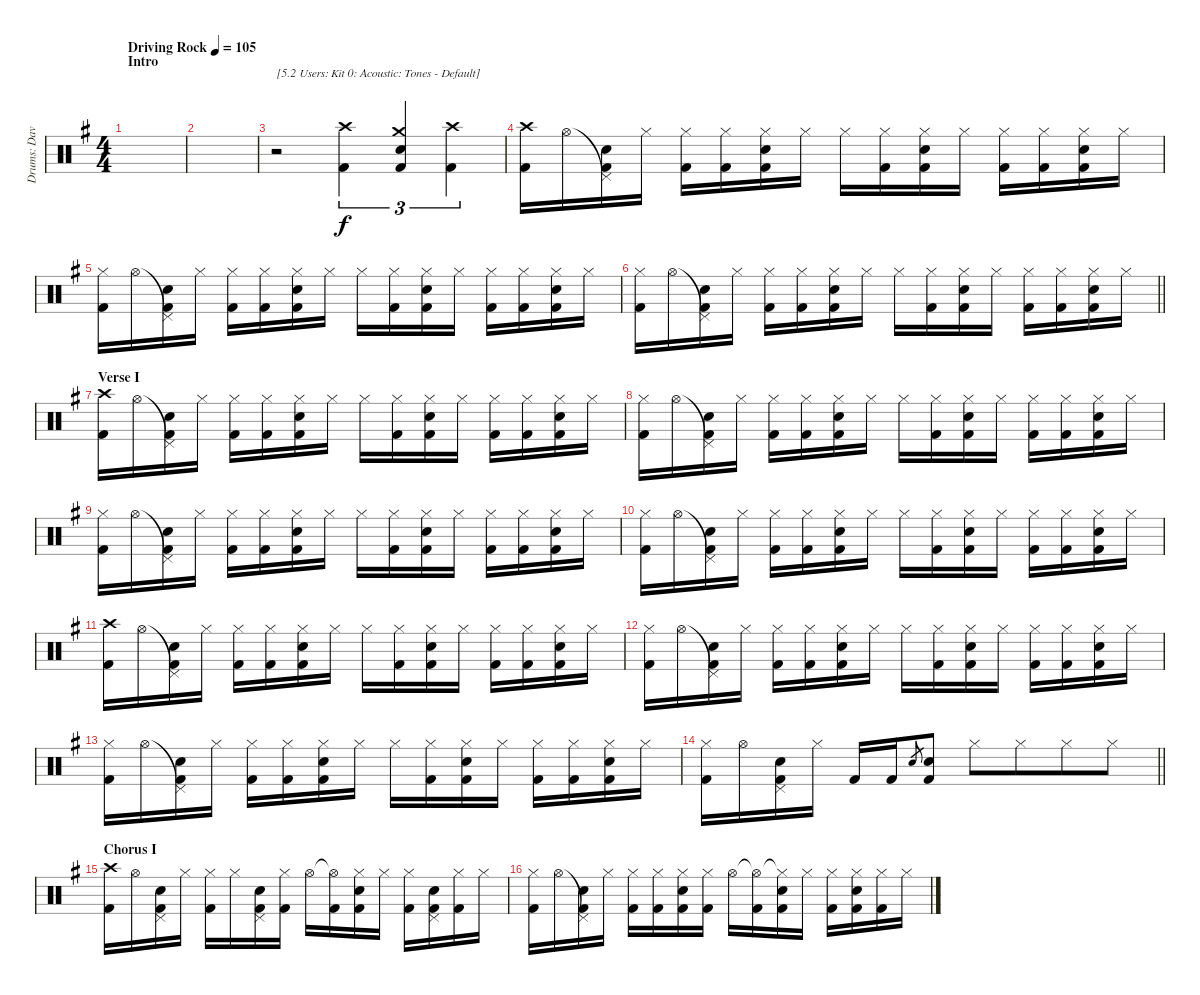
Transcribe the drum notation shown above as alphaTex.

\track ("Drums: Dave" "Drums: Dav") {instrument percussion}
\staff {score}
\articulation defaults
\ts (4 4)
\section ("" "Intro")
\tempo (105 "Driving Rock")
\clef neutral
\ks g
|
|
r.2{txt "[5.2 Users: Kit 0: Acoustic: Tones - Default]"} ("Crash high (hit)" "Kick (hit) 2").4{tu (3 2)} ("Crash medium (hit)" "Electric Snare (hit)" "Kick (hit) 2").4{tu (3 2)} ("Crash high (hit)" "Kick (hit) 2").4{tu (3 2)} |
("Crash high (hit)" "Kick (hit) 2").16 "Hi-Hat (open)".16 ("Pedal Hi-Hat (hit)"{t} "Electric Snare (hit)" "Kick (hit) 2").16 "Hi-Hat (closed)".16 ("Hi-Hat (closed)" "Kick (hit) 2").16 ("Hi-Hat (closed)" "Kick (hit) 2").16 ("Hi-Hat (closed)" "Electric Snare (hit)" "Kick (hit) 2").16 "Hi-Hat (closed)".16 "Hi-Hat (closed)".16 ("Hi-Hat (closed)" "Kick (hit) 2").16 ("Hi-Hat (closed)" "Electric Snare (hit)" "Kick (hit) 2").16 "Hi-Hat (closed)".16 ("Hi-Hat (closed)" "Kick (hit) 2").16 ("Hi-Hat (closed)" "Kick (hit) 2").16 ("Hi-Hat (closed)" "Electric Snare (hit)" "Kick (hit) 2").16 "Hi-Hat (closed)".16 |
("Hi-Hat (closed)" "Kick (hit) 2").16 "Hi-Hat (open)".16 ("Pedal Hi-Hat (hit)"{t} "Electric Snare (hit)" "Kick (hit) 2").16 "Hi-Hat (closed)".16 ("Hi-Hat (closed)" "Kick (hit) 2").16 ("Hi-Hat (closed)" "Kick (hit) 2").16 ("Hi-Hat (closed)" "Electric Snare (hit)" "Kick (hit) 2").16 "Hi-Hat (closed)".16 "Hi-Hat (closed)".16 ("Hi-Hat (closed)" "Kick (hit) 2").16 ("Hi-Hat (closed)" "Electric Snare (hit)" "Kick (hit) 2").16 "Hi-Hat (closed)".16 ("Hi-Hat (closed)" "Kick (hit) 2").16 ("Hi-Hat (closed)" "Kick (hit) 2").16 ("Hi-Hat (closed)" "Electric Snare (hit)" "Kick (hit) 2").16 "Hi-Hat (closed)".16 |
\barLineRight lightlight
("Hi-Hat (closed)" "Kick (hit) 2").16 "Hi-Hat (open)".16 ("Pedal Hi-Hat (hit)"{t} "Electric Snare (hit)" "Kick (hit) 2").16 "Hi-Hat (closed)".16 ("Hi-Hat (closed)" "Kick (hit) 2").16 ("Hi-Hat (closed)" "Kick (hit) 2").16 ("Hi-Hat (closed)" "Electric Snare (hit)" "Kick (hit) 2").16 "Hi-Hat (closed)".16 "Hi-Hat (closed)".16 ("Hi-Hat (closed)" "Kick (hit) 2").16 ("Hi-Hat (closed)" "Electric Snare (hit)" "Kick (hit) 2").16 "Hi-Hat (closed)".16 ("Hi-Hat (closed)" "Kick (hit) 2").16 ("Hi-Hat (closed)" "Kick (hit) 2").16 ("Hi-Hat (closed)" "Electric Snare (hit)" "Kick (hit) 2").16 "Hi-Hat (closed)".16 |
\section ("" "Verse I")
("Crash high (hit)" "Kick (hit) 2").16 "Hi-Hat (open)".16 ("Pedal Hi-Hat (hit)"{t} "Electric Snare (hit)" "Kick (hit) 2").16 "Hi-Hat (closed)".16 ("Hi-Hat (closed)" "Kick (hit) 2").16 ("Hi-Hat (closed)" "Kick (hit) 2").16 ("Hi-Hat (closed)" "Electric Snare (hit)" "Kick (hit) 2").16 "Hi-Hat (closed)".16 "Hi-Hat (closed)".16 ("Hi-Hat (closed)" "Kick (hit) 2").16 ("Hi-Hat (closed)" "Electric Snare (hit)" "Kick (hit) 2").16 "Hi-Hat (closed)".16 ("Hi-Hat (closed)" "Kick (hit) 2").16 ("Hi-Hat (closed)" "Kick (hit) 2").16 ("Hi-Hat (closed)" "Electric Snare (hit)" "Kick (hit) 2").16 "Hi-Hat (closed)".16 |
("Hi-Hat (closed)" "Kick (hit) 2").16 "Hi-Hat (open)".16 ("Pedal Hi-Hat (hit)"{t} "Electric Snare (hit)" "Kick (hit) 2").16 "Hi-Hat (closed)".16 ("Hi-Hat (closed)" "Kick (hit) 2").16 ("Hi-Hat (closed)" "Kick (hit) 2").16 ("Hi-Hat (closed)" "Electric Snare (hit)" "Kick (hit) 2").16 "Hi-Hat (closed)".16 "Hi-Hat (closed)".16 ("Hi-Hat (closed)" "Kick (hit) 2").16 ("Hi-Hat (closed)" "Electric Snare (hit)" "Kick (hit) 2").16 "Hi-Hat (closed)".16 ("Hi-Hat (closed)" "Kick (hit) 2").16 ("Hi-Hat (closed)" "Kick (hit) 2").16 ("Hi-Hat (closed)" "Electric Snare (hit)" "Kick (hit) 2").16 "Hi-Hat (closed)".16 |
("Hi-Hat (closed)" "Kick (hit) 2").16 "Hi-Hat (open)".16 ("Pedal Hi-Hat (hit)"{t} "Electric Snare (hit)" "Kick (hit) 2").16 "Hi-Hat (closed)".16 ("Hi-Hat (closed)" "Kick (hit) 2").16 ("Hi-Hat (closed)" "Kick (hit) 2").16 ("Hi-Hat (closed)" "Electric Snare (hit)" "Kick (hit) 2").16 "Hi-Hat (closed)".16 "Hi-Hat (closed)".16 ("Hi-Hat (closed)" "Kick (hit) 2").16 ("Hi-Hat (closed)" "Electric Snare (hit)" "Kick (hit) 2").16 "Hi-Hat (closed)".16 ("Hi-Hat (closed)" "Kick (hit) 2").16 ("Hi-Hat (closed)" "Kick (hit) 2").16 ("Hi-Hat (closed)" "Electric Snare (hit)" "Kick (hit) 2").16 "Hi-Hat (closed)".16 |
("Hi-Hat (closed)" "Kick (hit) 2").16 "Hi-Hat (open)".16 ("Pedal Hi-Hat (hit)"{t} "Electric Snare (hit)" "Kick (hit) 2").16 "Hi-Hat (closed)".16 ("Hi-Hat (closed)" "Kick (hit) 2").16 ("Hi-Hat (closed)" "Kick (hit) 2").16 ("Hi-Hat (closed)" "Electric Snare (hit)" "Kick (hit) 2").16 "Hi-Hat (closed)".16 "Hi-Hat (closed)".16 ("Hi-Hat (closed)" "Kick (hit) 2").16 ("Hi-Hat (closed)" "Electric Snare (hit)" "Kick (hit) 2").16 "Hi-Hat (closed)".16 ("Hi-Hat (closed)" "Kick (hit) 2").16 ("Hi-Hat (closed)" "Kick (hit) 2").16 ("Hi-Hat (closed)" "Electric Snare (hit)" "Kick (hit) 2").16 "Hi-Hat (closed)".16 |
("Crash high (hit)" "Kick (hit) 2").16 "Hi-Hat (open)".16 ("Pedal Hi-Hat (hit)"{t} "Electric Snare (hit)" "Kick (hit) 2").16 "Hi-Hat (closed)".16 ("Hi-Hat (closed)" "Kick (hit) 2").16 ("Hi-Hat (closed)" "Kick (hit) 2").16 ("Hi-Hat (closed)" "Electric Snare (hit)" "Kick (hit) 2").16 "Hi-Hat (closed)".16 "Hi-Hat (closed)".16 ("Hi-Hat (closed)" "Kick (hit) 2").16 ("Hi-Hat (closed)" "Electric Snare (hit)" "Kick (hit) 2").16 "Hi-Hat (closed)".16 ("Hi-Hat (closed)" "Kick (hit) 2").16 ("Hi-Hat (closed)" "Kick (hit) 2").16 ("Hi-Hat (closed)" "Electric Snare (hit)" "Kick (hit) 2").16 "Hi-Hat (closed)".16 |
("Hi-Hat (closed)" "Kick (hit) 2").16 "Hi-Hat (open)".16 ("Pedal Hi-Hat (hit)"{t} "Electric Snare (hit)" "Kick (hit) 2").16 "Hi-Hat (closed)".16 ("Hi-Hat (closed)" "Kick (hit) 2").16 ("Hi-Hat (closed)" "Kick (hit) 2").16 ("Hi-Hat (closed)" "Electric Snare (hit)" "Kick (hit) 2").16 "Hi-Hat (closed)".16 "Hi-Hat (closed)".16 ("Hi-Hat (closed)" "Kick (hit) 2").16 ("Hi-Hat (closed)" "Electric Snare (hit)" "Kick (hit) 2").16 "Hi-Hat (closed)".16 ("Hi-Hat (closed)" "Kick (hit) 2").16 ("Hi-Hat (closed)" "Kick (hit) 2").16 ("Hi-Hat (closed)" "Electric Snare (hit)" "Kick (hit) 2").16 "Hi-Hat (closed)".16 |
("Hi-Hat (closed)" "Kick (hit) 2").16 "Hi-Hat (open)".16 ("Pedal Hi-Hat (hit)"{t} "Electric Snare (hit)" "Kick (hit) 2").16 "Hi-Hat (closed)".16 ("Hi-Hat (closed)" "Kick (hit) 2").16 ("Hi-Hat (closed)" "Kick (hit) 2").16 ("Hi-Hat (closed)" "Electric Snare (hit)" "Kick (hit) 2").16 "Hi-Hat (closed)".16 "Hi-Hat (closed)".16 ("Hi-Hat (closed)" "Kick (hit) 2").16 ("Hi-Hat (closed)" "Electric Snare (hit)" "Kick (hit) 2").16 "Hi-Hat (closed)".16 ("Hi-Hat (closed)" "Kick (hit) 2").16 ("Hi-Hat (closed)" "Kick (hit) 2").16 ("Hi-Hat (closed)" "Electric Snare (hit)" "Kick (hit) 2").16 "Hi-Hat (closed)".16 |
\barLineRight lightlight
("Hi-Hat (closed)" "Kick (hit) 2").16 "Hi-Hat (open)".16 ("Pedal Hi-Hat (hit)" "Electric Snare (hit)" "Kick (hit) 2").16 "Hi-Hat (closed)".16 "Kick (hit) 2".16 "Kick (hit) 2".16 "Snare (hit) 2".8{gr} ("Electric Snare (hit)" "Kick (hit) 2").8 "Hi-Hat (closed)".8 "Hi-Hat (closed)".8{beam merge} "Hi-Hat (closed)".8 "Hi-Hat (closed)".8 |
\section ("" "Chorus I")
("Crash high (hit)" "Kick (hit) 2").16 "Hi-Hat (open)".16 ("Pedal Hi-Hat (hit)" "Electric Snare (hit)" "Kick (hit) 2").16 "Hi-Hat (closed)".16 ("Hi-Hat (closed)" "Kick (hit) 2").16 "Hi-Hat (closed)".16 ("Pedal Hi-Hat (hit)" "Electric Snare (hit)" "Kick (hit) 2").16 ("Hi-Hat (closed)" "Kick (hit) 2").16 "Hi-Hat (open)".16 ("Hi-Hat (open)"{t} "Kick (hit) 2").16 ("Hi-Hat (closed)" "Electric Snare (hit)" "Kick (hit) 2").16 "Hi-Hat (closed)".16 ("Hi-Hat (closed)" "Kick (hit) 2").16 ("Pedal Hi-Hat (hit)" "Electric Snare (hit)" "Kick (hit) 2").16 ("Hi-Hat (closed)" "Kick (hit) 2").16 "Hi-Hat (closed)".16 |
("Hi-Hat (closed)" "Kick (hit) 2").16 "Hi-Hat (open)".16 ("Pedal Hi-Hat (hit)"{t} "Electric Snare (hit)" "Kick (hit) 2").16 "Hi-Hat (closed)".16 ("Hi-Hat (closed)" "Kick (hit) 2").16 ("Hi-Hat (closed)" "Kick (hit) 2").16 ("Hi-Hat (closed)" "Electric Snare (hit)" "Kick (hit) 2").16 ("Hi-Hat (closed)" "Kick (hit) 2").16 "Hi-Hat (open)".16 ("Hi-Hat (open)"{t} "Kick (hit) 2").16 ("Hi-Hat (closed)"{t} "Electric Snare (hit)" "Kick (hit) 2").16 "Hi-Hat (closed)".16 ("Hi-Hat (closed)" "Kick (hit) 2").16 ("Hi-Hat (closed)" "Electric Snare (hit)" "Kick (hit) 2").16 ("Hi-Hat (closed)" "Kick (hit) 2").16 "Hi-Hat (closed)".16
